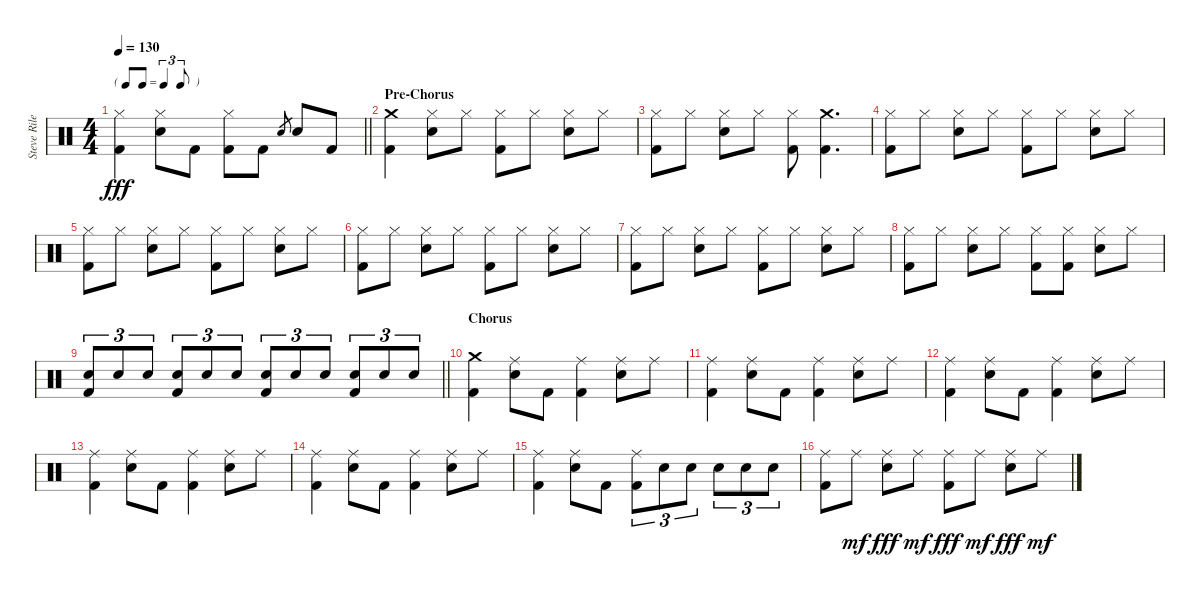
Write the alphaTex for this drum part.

\track ("Steve Riley - Drums" "Steve Rile") {instrument percussion}
\staff {score}
\articulation defaults
\ts (4 4)
\tf triplet8th
\tempo 130
\clef neutral
\barLineRight lightlight
\ks c
("Hi-Hat (closed)" "Kick (hit) 2").4{dy fff} ("Hi-Hat (closed)" "Electric Snare (hit)").8 "Kick (hit) 2".8 ("Hi-Hat (closed)" "Kick (hit) 2").8 "Kick (hit) 2".8 "Electric Snare (hit)".8{gr} "Electric Snare (hit)".8 "Kick (hit) 2".8 |
\section ("" "Pre-Chorus")
("Crash medium (hit)" "Kick (hit) 2").4 ("Hi-Hat (closed)" "Electric Snare (hit)").8 "Hi-Hat (closed)".8 ("Hi-Hat (closed)" "Kick (hit) 2").8 "Hi-Hat (closed)".8 ("Hi-Hat (closed)" "Electric Snare (hit)").8 "Hi-Hat (closed)".8 |
("Hi-Hat (closed)" "Kick (hit) 2").8 "Hi-Hat (closed)".8 ("Hi-Hat (closed)" "Electric Snare (hit)").8 "Hi-Hat (closed)".8 ("Hi-Hat (closed)" "Kick (hit) 2").8 ("Crash medium (hit)" "Kick (hit) 2").4{d} |
("Hi-Hat (closed)" "Kick (hit) 2").8 "Hi-Hat (closed)".8 ("Hi-Hat (closed)" "Electric Snare (hit)").8 "Hi-Hat (closed)".8 ("Hi-Hat (closed)" "Kick (hit) 2").8 "Hi-Hat (closed)".8 ("Hi-Hat (closed)" "Electric Snare (hit)").8 "Hi-Hat (closed)".8 |
("Hi-Hat (closed)" "Kick (hit) 2").8 "Hi-Hat (closed)".8 ("Hi-Hat (closed)" "Electric Snare (hit)").8 "Hi-Hat (closed)".8 ("Hi-Hat (closed)" "Kick (hit) 2").8 "Hi-Hat (closed)".8 ("Hi-Hat (closed)" "Electric Snare (hit)").8 "Hi-Hat (closed)".8 |
("Hi-Hat (closed)" "Kick (hit) 2").8 "Hi-Hat (closed)".8 ("Hi-Hat (closed)" "Electric Snare (hit)").8 "Hi-Hat (closed)".8 ("Hi-Hat (closed)" "Kick (hit) 2").8 "Hi-Hat (closed)".8 ("Hi-Hat (closed)" "Electric Snare (hit)").8 "Hi-Hat (closed)".8 |
("Hi-Hat (closed)" "Kick (hit) 2").8 "Hi-Hat (closed)".8 ("Hi-Hat (closed)" "Electric Snare (hit)").8 "Hi-Hat (closed)".8 ("Hi-Hat (closed)" "Kick (hit) 2").8 "Hi-Hat (closed)".8 ("Hi-Hat (closed)" "Electric Snare (hit)").8 "Hi-Hat (closed)".8 |
("Hi-Hat (closed)" "Kick (hit) 2").8 "Hi-Hat (closed)".8 ("Hi-Hat (closed)" "Electric Snare (hit)").8 "Hi-Hat (closed)".8 ("Hi-Hat (closed)" "Kick (hit) 2").8 ("Hi-Hat (closed)" "Kick (hit) 2").8 ("Hi-Hat (closed)" "Electric Snare (hit)").8 "Hi-Hat (closed)".8 |
\barLineRight lightlight
("Electric Snare (hit)" "Kick (hit) 2").8{tu (3 2)} "Electric Snare (hit)".8{tu (3 2)} "Electric Snare (hit)".8{tu (3 2)} ("Electric Snare (hit)" "Kick (hit) 2").8{tu (3 2)} "Electric Snare (hit)".8{tu (3 2)} "Electric Snare (hit)".8{tu (3 2)} ("Electric Snare (hit)" "Kick (hit) 2").8{tu (3 2)} "Electric Snare (hit)".8{tu (3 2)} "Electric Snare (hit)".8{tu (3 2)} ("Electric Snare (hit)" "Kick (hit) 2").8{tu (3 2)} "Electric Snare (hit)".8{tu (3 2)} "Electric Snare (hit)".8{tu (3 2)} |
\section ("" "Chorus")
("Crash medium (hit)" "Kick (hit) 2").4 ("Ride (middle)" "Electric Snare (hit)").8 "Kick (hit) 2".8 ("Ride (middle)" "Kick (hit) 2").4 ("Ride (middle)" "Electric Snare (hit)").8 "Ride (middle)".8 |
("Ride (middle)" "Kick (hit) 2").4 ("Ride (middle)" "Electric Snare (hit)").8 "Kick (hit) 2".8 ("Ride (middle)" "Kick (hit) 2").4 ("Ride (middle)" "Electric Snare (hit)").8 "Ride (middle)".8 |
("Ride (middle)" "Kick (hit) 2").4 ("Ride (middle)" "Electric Snare (hit)").8 "Kick (hit) 2".8 ("Ride (middle)" "Kick (hit) 2").4 ("Ride (middle)" "Electric Snare (hit)").8 "Ride (middle)".8 |
("Ride (middle)" "Kick (hit) 2").4 ("Ride (middle)" "Electric Snare (hit)").8 "Kick (hit) 2".8 ("Ride (middle)" "Kick (hit) 2").4 ("Ride (middle)" "Electric Snare (hit)").8 "Ride (middle)".8 |
("Ride (middle)" "Kick (hit) 2").4 ("Ride (middle)" "Electric Snare (hit)").8 "Kick (hit) 2".8 ("Ride (middle)" "Kick (hit) 2").4 ("Ride (middle)" "Electric Snare (hit)").8 "Ride (middle)".8 |
("Ride (middle)" "Kick (hit) 2").4 ("Ride (middle)" "Electric Snare (hit)").8 "Kick (hit) 2".8 ("Ride (middle)" "Kick (hit) 2").8{tu (3 2)} "Electric Snare (hit)".8{tu (3 2)} "Electric Snare (hit)".8{tu (3 2)} "Electric Snare (hit)".8{tu (3 2)} "Electric Snare (hit)".8{tu (3 2)} "Electric Snare (hit)".8{tu (3 2)} |
("Ride (middle)" "Kick (hit) 2").8 "Ride (middle)".8{dy mf} ("Ride (middle)" "Electric Snare (hit)").8{dy fff} "Ride (middle)".8{dy mf} ("Ride (middle)" "Kick (hit) 2").8{dy fff} "Ride (middle)".8{dy mf} ("Ride (middle)" "Electric Snare (hit)").8{dy fff} "Ride (middle)".8{dy mf}
